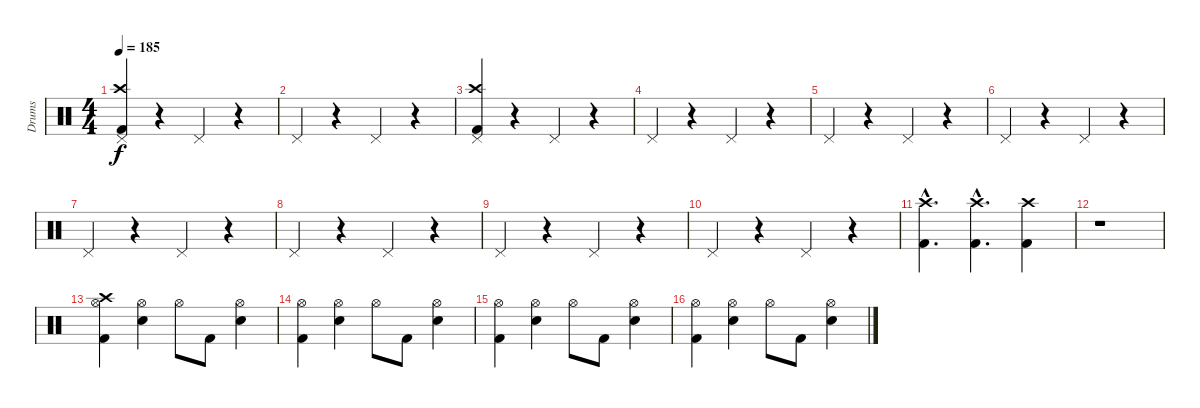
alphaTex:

\track ("Drums" "Drums") {instrument percussion}
\staff {score}
\articulation defaults
\ts (4 4)
\tempo 185
\clef neutral
\ks c
("Pedal Hi-Hat (hit)" "Crash high (hit)" "Kick (hit) 2").4{dy f} r.4 "Pedal Hi-Hat (hit)".4 r.4 |
"Pedal Hi-Hat (hit)".4 r.4 "Pedal Hi-Hat (hit)".4 r.4 |
("Pedal Hi-Hat (hit)" "Crash high (hit)" "Kick (hit) 2").4 r.4 "Pedal Hi-Hat (hit)".4 r.4 |
"Pedal Hi-Hat (hit)".4 r.4 "Pedal Hi-Hat (hit)".4 r.4 |
"Pedal Hi-Hat (hit)".4 r.4 "Pedal Hi-Hat (hit)".4 r.4 |
"Pedal Hi-Hat (hit)".4 r.4 "Pedal Hi-Hat (hit)".4 r.4 |
"Pedal Hi-Hat (hit)".4 r.4 "Pedal Hi-Hat (hit)".4 r.4 |
"Pedal Hi-Hat (hit)".4 r.4 "Pedal Hi-Hat (hit)".4 r.4 |
"Pedal Hi-Hat (hit)".4 r.4 "Pedal Hi-Hat (hit)".4 r.4 |
"Pedal Hi-Hat (hit)".4 r.4 "Pedal Hi-Hat (hit)".4 r.4 |
("Crash high (hit)"{hac} "Kick (hit) 2"{hac}).4{d} ("Crash high (hit)"{hac} "Kick (hit) 2"{hac}).4{d} ("Crash high (hit)" "Kick (hit) 2").4 |
r.1 |
("Hi-Hat (open)" "Crash high (hit)" "Kick (hit) 2").4 ("Hi-Hat (open)" "Electric Snare (hit)").4 "Hi-Hat (open)".8 "Kick (hit) 2".8 ("Hi-Hat (open)" "Electric Snare (hit)").4 |
("Hi-Hat (open)" "Kick (hit) 2").4 ("Hi-Hat (open)" "Electric Snare (hit)").4 "Hi-Hat (open)".8 "Kick (hit) 2".8 ("Hi-Hat (open)" "Electric Snare (hit)").4 |
("Hi-Hat (open)" "Kick (hit) 2").4 ("Hi-Hat (open)" "Electric Snare (hit)").4 "Hi-Hat (open)".8 "Kick (hit) 2".8 ("Hi-Hat (open)" "Electric Snare (hit)").4 |
("Hi-Hat (open)" "Kick (hit) 2").4 ("Hi-Hat (open)" "Electric Snare (hit)").4 "Hi-Hat (open)".8 "Kick (hit) 2".8 ("Hi-Hat (open)" "Electric Snare (hit)").4
